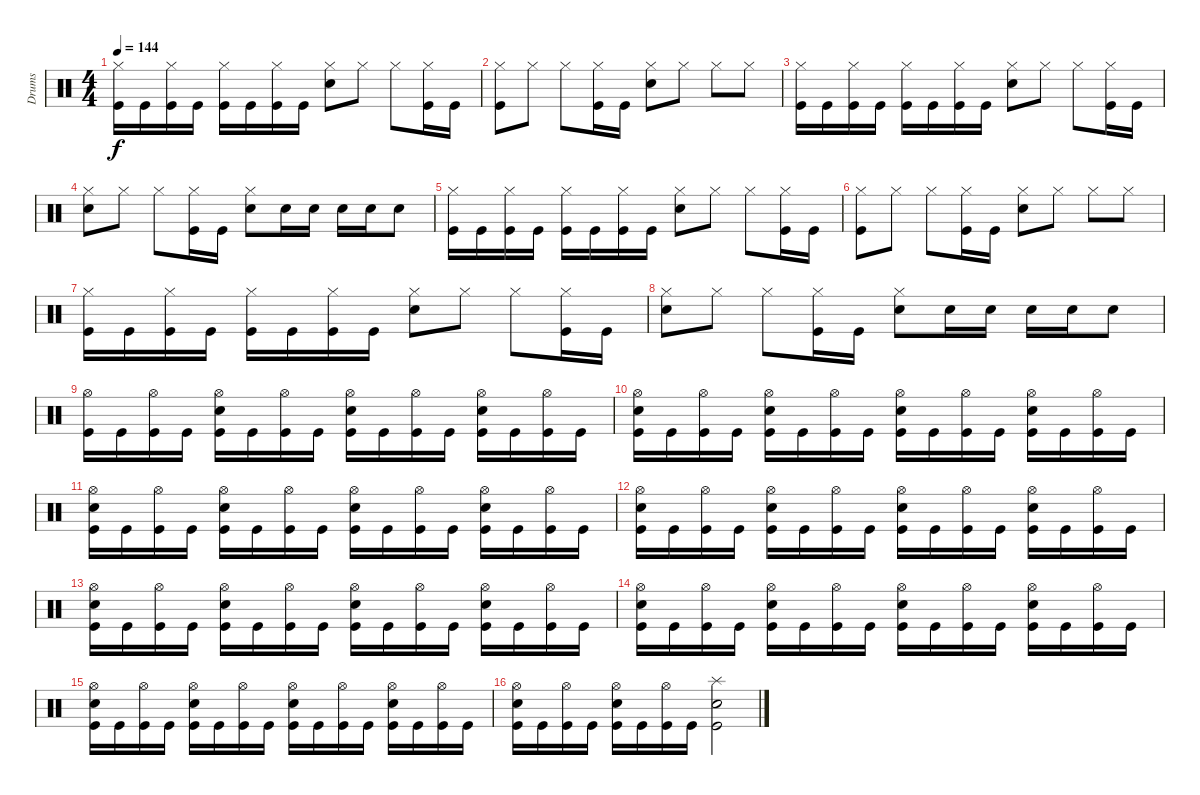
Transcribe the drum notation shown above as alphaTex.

\track ("Drums" "Drums") {instrument percussion}
\staff {score}
\articulation defaults
\ts (4 4)
\tempo 144
\clef neutral
\ks c
("Hi-Hat (closed)" "Kick (hit)").16{dy f} "Kick (hit)".16 ("Hi-Hat (closed)" "Kick (hit)").16 "Kick (hit)".16 ("Hi-Hat (closed)" "Kick (hit)").16 "Kick (hit)".16 ("Hi-Hat (closed)" "Kick (hit)").16 "Kick (hit)".16 ("Hi-Hat (closed)" "Snare (hit) 2").8 "Hi-Hat (closed)".8 "Hi-Hat (closed)".8 ("Hi-Hat (closed)" "Kick (hit)").16 "Kick (hit)".16 |
("Hi-Hat (closed)" "Kick (hit)").8 "Hi-Hat (closed)".8 "Hi-Hat (closed)".8 ("Hi-Hat (closed)" "Kick (hit)").16 "Kick (hit)".16 ("Hi-Hat (closed)" "Snare (hit) 2").8 "Hi-Hat (closed)".8 "Hi-Hat (closed)".8 "Hi-Hat (closed)".8 |
("Hi-Hat (closed)" "Kick (hit)").16 "Kick (hit)".16 ("Hi-Hat (closed)" "Kick (hit)").16 "Kick (hit)".16 ("Hi-Hat (closed)" "Kick (hit)").16 "Kick (hit)".16 ("Hi-Hat (closed)" "Kick (hit)").16 "Kick (hit)".16 ("Hi-Hat (closed)" "Snare (hit) 2").8 "Hi-Hat (closed)".8 "Hi-Hat (closed)".8 ("Hi-Hat (closed)" "Kick (hit)").16 "Kick (hit)".16 |
("Hi-Hat (closed)" "Snare (hit) 2").8 "Hi-Hat (closed)".8 "Hi-Hat (closed)".8 ("Hi-Hat (closed)" "Kick (hit)").16 "Kick (hit)".16 ("Hi-Hat (closed)" "Snare (hit) 2").8 "Snare (hit) 2".16 "Snare (hit) 2".16 "Snare (hit) 2".16 "Snare (hit) 2".16 "Snare (hit) 2".8 |
("Hi-Hat (closed)" "Kick (hit)").16 "Kick (hit)".16 ("Hi-Hat (closed)" "Kick (hit)").16 "Kick (hit)".16 ("Hi-Hat (closed)" "Kick (hit)").16 "Kick (hit)".16 ("Hi-Hat (closed)" "Kick (hit)").16 "Kick (hit)".16 ("Hi-Hat (closed)" "Snare (hit) 2").8 "Hi-Hat (closed)".8 "Hi-Hat (closed)".8 ("Hi-Hat (closed)" "Kick (hit)").16 "Kick (hit)".16 |
("Hi-Hat (closed)" "Kick (hit)").8 "Hi-Hat (closed)".8 "Hi-Hat (closed)".8 ("Hi-Hat (closed)" "Kick (hit)").16 "Kick (hit)".16 ("Hi-Hat (closed)" "Snare (hit) 2").8 "Hi-Hat (closed)".8 "Hi-Hat (closed)".8 "Hi-Hat (closed)".8 |
("Hi-Hat (closed)" "Kick (hit)").16 "Kick (hit)".16 ("Hi-Hat (closed)" "Kick (hit)").16 "Kick (hit)".16 ("Hi-Hat (closed)" "Kick (hit)").16 "Kick (hit)".16 ("Hi-Hat (closed)" "Kick (hit)").16 "Kick (hit)".16 ("Hi-Hat (closed)" "Snare (hit) 2").8 "Hi-Hat (closed)".8 "Hi-Hat (closed)".8 ("Hi-Hat (closed)" "Kick (hit)").16 "Kick (hit)".16 |
("Hi-Hat (closed)" "Snare (hit) 2").8 "Hi-Hat (closed)".8 "Hi-Hat (closed)".8 ("Hi-Hat (closed)" "Kick (hit)").16 "Kick (hit)".16 ("Hi-Hat (closed)" "Snare (hit) 2").8 "Snare (hit) 2".16 "Snare (hit) 2".16 "Snare (hit) 2".16 "Snare (hit) 2".16 "Snare (hit) 2".8 |
("Hi-Hat (open)" "Kick (hit)").16 "Kick (hit)".16 ("Hi-Hat (open)" "Kick (hit)").16 "Kick (hit)".16 ("Hi-Hat (open)" "Snare (hit) 2" "Kick (hit)").16 "Kick (hit)".16 ("Hi-Hat (open)" "Kick (hit)").16 "Kick (hit)".16 ("Hi-Hat (open)" "Snare (hit) 2" "Kick (hit)").16 "Kick (hit)".16 ("Hi-Hat (open)" "Kick (hit)").16 "Kick (hit)".16 ("Hi-Hat (open)" "Snare (hit) 2" "Kick (hit)").16 "Kick (hit)".16 ("Hi-Hat (open)" "Kick (hit)").16 "Kick (hit)".16 |
("Hi-Hat (open)" "Snare (hit) 2" "Kick (hit)").16 "Kick (hit)".16 ("Hi-Hat (open)" "Kick (hit)").16 "Kick (hit)".16 ("Hi-Hat (open)" "Snare (hit) 2" "Kick (hit)").16 "Kick (hit)".16 ("Hi-Hat (open)" "Kick (hit)").16 "Kick (hit)".16 ("Hi-Hat (open)" "Snare (hit) 2" "Kick (hit)").16 "Kick (hit)".16 ("Hi-Hat (open)" "Kick (hit)").16 "Kick (hit)".16 ("Hi-Hat (open)" "Snare (hit) 2" "Kick (hit)").16 "Kick (hit)".16 ("Hi-Hat (open)" "Kick (hit)").16 "Kick (hit)".16 |
("Hi-Hat (open)" "Snare (hit) 2" "Kick (hit)").16 "Kick (hit)".16 ("Hi-Hat (open)" "Kick (hit)").16 "Kick (hit)".16 ("Hi-Hat (open)" "Snare (hit) 2" "Kick (hit)").16 "Kick (hit)".16 ("Hi-Hat (open)" "Kick (hit)").16 "Kick (hit)".16 ("Hi-Hat (open)" "Snare (hit) 2" "Kick (hit)").16 "Kick (hit)".16 ("Hi-Hat (open)" "Kick (hit)").16 "Kick (hit)".16 ("Hi-Hat (open)" "Snare (hit) 2" "Kick (hit)").16 "Kick (hit)".16 ("Hi-Hat (open)" "Kick (hit)").16 "Kick (hit)".16 |
("Hi-Hat (open)" "Snare (hit) 2" "Kick (hit)").16 "Kick (hit)".16 ("Hi-Hat (open)" "Kick (hit)").16 "Kick (hit)".16 ("Hi-Hat (open)" "Snare (hit) 2" "Kick (hit)").16 "Kick (hit)".16 ("Hi-Hat (open)" "Kick (hit)").16 "Kick (hit)".16 ("Hi-Hat (open)" "Snare (hit) 2" "Kick (hit)").16 "Kick (hit)".16 ("Hi-Hat (open)" "Kick (hit)").16 "Kick (hit)".16 ("Hi-Hat (open)" "Snare (hit) 2" "Kick (hit)").16 "Kick (hit)".16 ("Hi-Hat (open)" "Kick (hit)").16 "Kick (hit)".16 |
("Hi-Hat (open)" "Snare (hit) 2" "Kick (hit)").16 "Kick (hit)".16 ("Hi-Hat (open)" "Kick (hit)").16 "Kick (hit)".16 ("Hi-Hat (open)" "Snare (hit) 2" "Kick (hit)").16 "Kick (hit)".16 ("Hi-Hat (open)" "Kick (hit)").16 "Kick (hit)".16 ("Hi-Hat (open)" "Snare (hit) 2" "Kick (hit)").16 "Kick (hit)".16 ("Hi-Hat (open)" "Kick (hit)").16 "Kick (hit)".16 ("Hi-Hat (open)" "Snare (hit) 2" "Kick (hit)").16 "Kick (hit)".16 ("Hi-Hat (open)" "Kick (hit)").16 "Kick (hit)".16 |
("Hi-Hat (open)" "Snare (hit) 2" "Kick (hit)").16 "Kick (hit)".16 ("Hi-Hat (open)" "Kick (hit)").16 "Kick (hit)".16 ("Hi-Hat (open)" "Snare (hit) 2" "Kick (hit)").16 "Kick (hit)".16 ("Hi-Hat (open)" "Kick (hit)").16 "Kick (hit)".16 ("Hi-Hat (open)" "Snare (hit) 2" "Kick (hit)").16 "Kick (hit)".16 ("Hi-Hat (open)" "Kick (hit)").16 "Kick (hit)".16 ("Hi-Hat (open)" "Snare (hit) 2" "Kick (hit)").16 "Kick (hit)".16 ("Hi-Hat (open)" "Kick (hit)").16 "Kick (hit)".16 |
("Hi-Hat (open)" "Snare (hit) 2" "Kick (hit)").16 "Kick (hit)".16 ("Hi-Hat (open)" "Kick (hit)").16 "Kick (hit)".16 ("Hi-Hat (open)" "Snare (hit) 2" "Kick (hit)").16 "Kick (hit)".16 ("Hi-Hat (open)" "Kick (hit)").16 "Kick (hit)".16 ("Hi-Hat (open)" "Snare (hit) 2" "Kick (hit)").16 "Kick (hit)".16 ("Hi-Hat (open)" "Kick (hit)").16 "Kick (hit)".16 ("Hi-Hat (open)" "Snare (hit) 2" "Kick (hit)").16 "Kick (hit)".16 ("Hi-Hat (open)" "Kick (hit)").16 "Kick (hit)".16 |
("Hi-Hat (open)" "Snare (hit) 2" "Kick (hit)").16 "Kick (hit)".16 ("Hi-Hat (open)" "Kick (hit)").16 "Kick (hit)".16 ("Hi-Hat (open)" "Snare (hit) 2" "Kick (hit)").16 "Kick (hit)".16 ("Hi-Hat (open)" "Kick (hit)").16 "Kick (hit)".16 ("Splash (hit)" "Snare (hit) 2" "Kick (hit)").2
